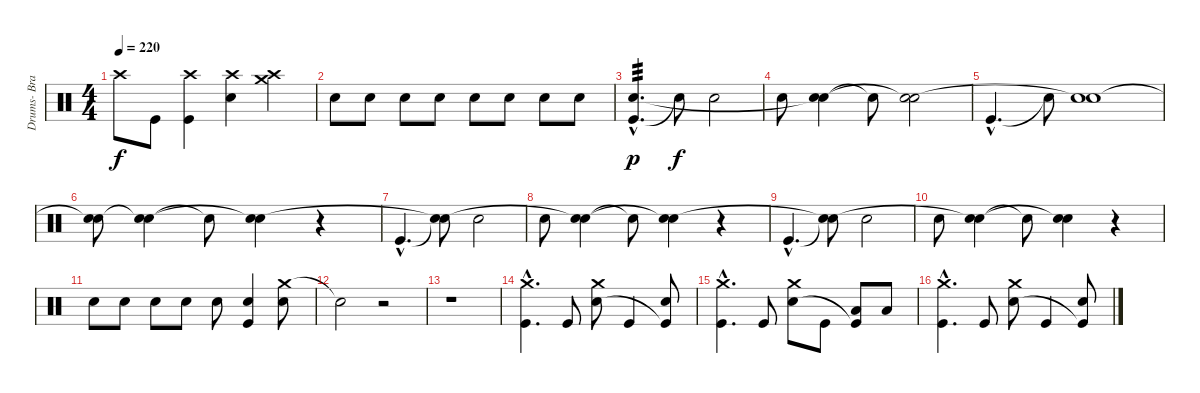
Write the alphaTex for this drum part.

\track ("Drums- Branden Steineckert" "Drums- Bra") {instrument percussion}
\staff {score}
\articulation defaults
\ts (4 4)
\tempo 220
\clef neutral
\ks c "Crash high (hit)".8{dy f} "Kick (hit)".8
("Crash high (hit)" "Kick (hit)").4 ("Crash high (hit)" "Snare (hit) 2").4 ("Crash medium (hit)" "Crash high (hit)").4 |
"Snare (hit) 2".8 "Snare (hit) 2".8 "Snare (hit) 2".8 "Snare (hit) 2".8 "Snare (hit) 2".8 "Snare (hit) 2".8 "Snare (hit) 2".8 "Snare (hit) 2".8 |
("Kick (hit)"{hac} "Electric Snare (hit)"{hac}).4{d tp 3 dy p} "Snare (hit) 2"{t}.8{dy f} "Snare (hit) 2".2 |
"Snare (hit) 2".8 ("Snare (hit) 2" "Snare (hit)"{t}).4 "Snare (hit) 2"{t}.8 ("Snare (hit) 2" "Snare (hit)"{t}).2 |
"Kick (hit)"{hac}.4{d} "Snare (hit) 2"{t}.8 ("Snare (hit) 2" "Snare (hit)"{t}).1 |
("Snare (hit) 2" "Electric Snare (hit)"{t}).8 ("Snare (hit) 2" "Snare (hit)"{t}).4 "Snare (hit) 2"{t}.8 ("Snare (hit) 2" "Snare (hit)"{t}).4 r.4 |
"Kick (hit)"{hac}.4{d} ("Snare (hit) 2"{t} "Snare (hit)"{t}).8 "Snare (hit) 2".2 |
"Snare (hit) 2".8 ("Snare (hit) 2" "Snare (hit)"{t}).4 "Snare (hit) 2"{t}.8 ("Snare (hit) 2" "Snare (hit)"{t}).4 r.4 |
"Kick (hit)"{hac}.4{d} ("Snare (hit) 2"{t} "Snare (hit)"{t}).8 "Snare (hit) 2".2 |
"Snare (hit) 2".8 ("Snare (hit) 2" "Snare (hit)"{t}).4 "Snare (hit) 2"{t}.8 ("Snare (hit) 2" "Snare (hit)"{t}).4 r.4 |
"Snare (hit) 2".8 "Snare (hit) 2".8 "Snare (hit) 2".8 "Snare (hit) 2".8 "Snare (hit) 2".8 ("Snare (hit) 2" "Kick (hit)").4 ("Crash medium (hit)" "Snare (hit) 2").8 |
"Snare (hit)"{t}.2 r.2 |
r.1 |
("Crash medium (hit)"{hac} "Kick (hit)"{hac}).4{d} "Kick (hit)".8 ("Crash medium (hit)" "Snare (hit) 2").8 "Kick (hit)".4 ("Snare (hit) 2" "Kick (hit)"{t}).8 |
("Crash medium (hit)"{hac} "Kick (hit)"{hac}).4{d} "Kick (hit)".8 ("Crash medium (hit)" "Snare (hit) 2").8 "Kick (hit)".8 ("Low Tom (hit)" "Kick (hit)"{t}).8 "Low Floor Tom (hit)".8 |
("Crash medium (hit)"{hac} "Kick (hit)"{hac}).4{d} "Kick (hit)".8 ("Crash medium (hit)" "Snare (hit) 2").8 "Kick (hit)".4 ("Snare (hit) 2" "Kick (hit)"{t}).8
